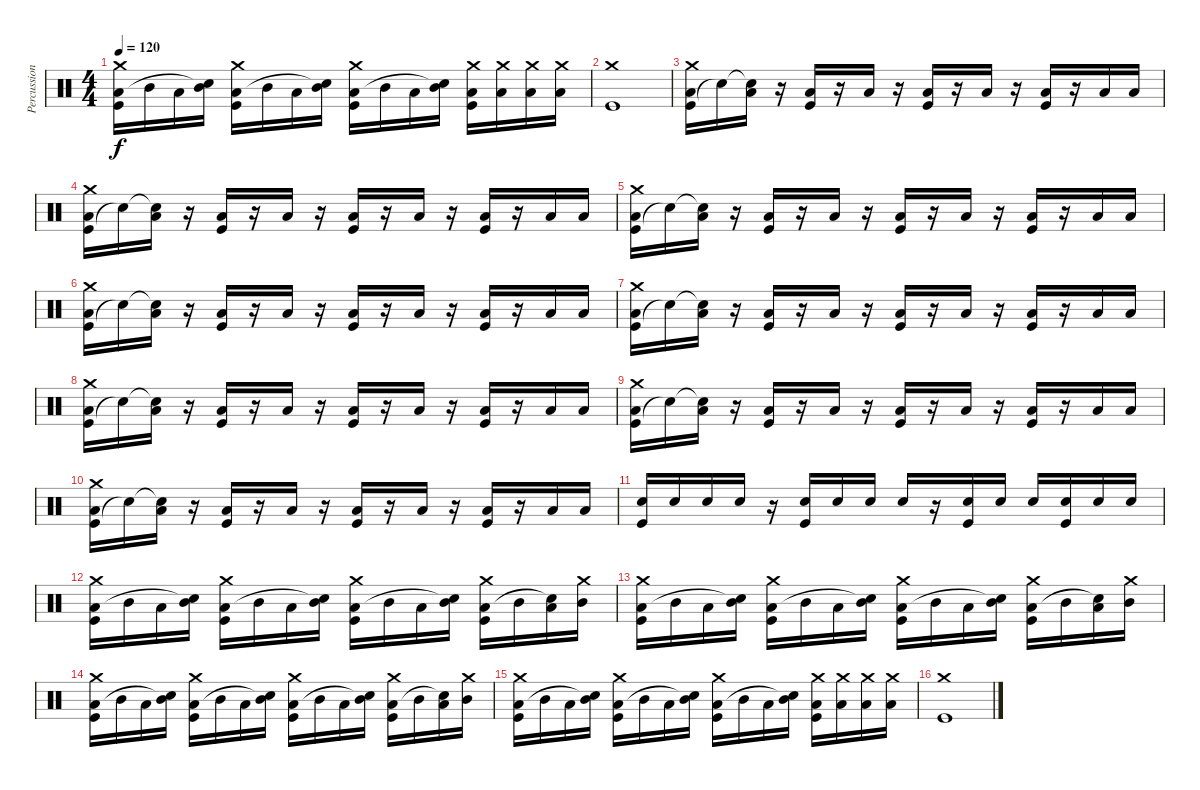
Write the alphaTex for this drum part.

\track ("Percussion" "Percussion") {instrument percussion}
\staff {score}
\articulation defaults
\ts (4 4)
\tempo 120
\clef neutral
\ks c
("Kick (hit)" "Low Tom (hit)" "Crash medium (hit)").16{dy f} "Mid Tom (hit)".16 "Low Tom (hit)".16 ("Mid Tom (hit)" "Snare (hit)"{t}).16 ("Kick (hit)" "Low Tom (hit)" "Crash medium (hit)").16 "Mid Tom (hit)".16 "Low Tom (hit)".16 ("Mid Tom (hit)" "Snare (hit)"{t}).16 ("Kick (hit)" "Low Tom (hit)" "Crash medium (hit)").16 "Mid Tom (hit)".16 "Low Tom (hit)".16 ("Mid Tom (hit)" "Snare (hit)"{t}).16 ("Kick (hit)" "Low Tom (hit)" "Crash medium (hit)").16 ("Low Tom (hit)" "Crash medium (hit)").16 ("Low Tom (hit)" "Crash medium (hit)").16 ("Low Tom (hit)" "Crash medium (hit)").16 |
("Crash medium (hit)" "Kick (hit)").1 |
("Kick (hit)" "Crash medium (hit)" "Low Tom (hit)").16 "Snare (hit)"{t}.16 ("Snare (hit)"{t} "Low Tom (hit)").16 r.16 ("Kick (hit)" "Low Tom (hit)").16 r.16 "Low Tom (hit)".16 r.16 ("Kick (hit)" "Low Tom (hit)").16 r.16 "Low Tom (hit)".16 r.16 ("Kick (hit)" "Low Tom (hit)").16 r.16 "Low Tom (hit)".16 "Low Tom (hit)".16 |
("Kick (hit)" "Crash medium (hit)" "Low Tom (hit)").16 "Snare (hit)"{t}.16 ("Snare (hit)"{t} "Low Tom (hit)").16 r.16 ("Kick (hit)" "Low Tom (hit)").16 r.16 "Low Tom (hit)".16 r.16 ("Kick (hit)" "Low Tom (hit)").16 r.16 "Low Tom (hit)".16 r.16 ("Kick (hit)" "Low Tom (hit)").16 r.16 "Low Tom (hit)".16 "Low Tom (hit)".16 |
("Kick (hit)" "Crash medium (hit)" "Low Tom (hit)").16 "Snare (hit)"{t}.16 ("Snare (hit)"{t} "Low Tom (hit)").16 r.16 ("Kick (hit)" "Low Tom (hit)").16 r.16 "Low Tom (hit)".16 r.16 ("Kick (hit)" "Low Tom (hit)").16 r.16 "Low Tom (hit)".16 r.16 ("Kick (hit)" "Low Tom (hit)").16 r.16 "Low Tom (hit)".16 "Low Tom (hit)".16 |
("Kick (hit)" "Crash medium (hit)" "Low Tom (hit)").16 "Snare (hit)"{t}.16 ("Snare (hit)"{t} "Low Tom (hit)").16 r.16 ("Kick (hit)" "Low Tom (hit)").16 r.16 "Low Tom (hit)".16 r.16 ("Kick (hit)" "Low Tom (hit)").16 r.16 "Low Tom (hit)".16 r.16 ("Kick (hit)" "Low Tom (hit)").16 r.16 "Low Tom (hit)".16 "Low Tom (hit)".16 |
("Kick (hit)" "Crash medium (hit)" "Low Tom (hit)").16 "Snare (hit)"{t}.16 ("Snare (hit)"{t} "Low Tom (hit)").16 r.16 ("Kick (hit)" "Low Tom (hit)").16 r.16 "Low Tom (hit)".16 r.16 ("Kick (hit)" "Low Tom (hit)").16 r.16 "Low Tom (hit)".16 r.16 ("Kick (hit)" "Low Tom (hit)").16 r.16 "Low Tom (hit)".16 "Low Tom (hit)".16 |
("Kick (hit)" "Crash medium (hit)" "Low Tom (hit)").16 "Snare (hit)"{t}.16 ("Snare (hit)"{t} "Low Tom (hit)").16 r.16 ("Kick (hit)" "Low Tom (hit)").16 r.16 "Low Tom (hit)".16 r.16 ("Kick (hit)" "Low Tom (hit)").16 r.16 "Low Tom (hit)".16 r.16 ("Kick (hit)" "Low Tom (hit)").16 r.16 "Low Tom (hit)".16 "Low Tom (hit)".16 |
("Kick (hit)" "Crash medium (hit)" "Low Tom (hit)").16 "Snare (hit)"{t}.16 ("Snare (hit)"{t} "Low Tom (hit)").16 r.16 ("Kick (hit)" "Low Tom (hit)").16 r.16 "Low Tom (hit)".16 r.16 ("Kick (hit)" "Low Tom (hit)").16 r.16 "Low Tom (hit)".16 r.16 ("Kick (hit)" "Low Tom (hit)").16 r.16 "Low Tom (hit)".16 "Low Tom (hit)".16 |
("Kick (hit)" "Crash medium (hit)" "Low Tom (hit)").16 "Snare (hit)"{t}.16 ("Snare (hit)"{t} "Low Tom (hit)").16 r.16 ("Kick (hit)" "Low Tom (hit)").16 r.16 "Low Tom (hit)".16 r.16 ("Kick (hit)" "Low Tom (hit)").16 r.16 "Low Tom (hit)".16 r.16 ("Kick (hit)" "Low Tom (hit)").16 r.16 "Low Tom (hit)".16 "Low Tom (hit)".16 |
("Kick (hit)" "Snare (hit) 2").16 "Snare (hit) 2".16 "Snare (hit) 2".16 "Snare (hit) 2".16 r.16 ("Kick (hit)" "Snare (hit) 2").16 "Snare (hit) 2".16 "Snare (hit) 2".16 "Snare (hit) 2".16 r.16 ("Kick (hit)" "Snare (hit) 2").16 "Snare (hit) 2".16 "Snare (hit) 2".16 ("Kick (hit)" "Snare (hit) 2").16 "Snare (hit) 2".16 "Snare (hit) 2".16 |
("Kick (hit)" "Low Tom (hit)" "Crash medium (hit)").16 "Mid Tom (hit)".16 "Low Tom (hit)".16 ("Mid Tom (hit)" "Snare (hit)"{t}).16 ("Kick (hit)" "Low Tom (hit)" "Crash medium (hit)").16 "Mid Tom (hit)".16 "Low Tom (hit)".16 ("Mid Tom (hit)" "Snare (hit)"{t}).16 ("Kick (hit)" "Low Tom (hit)" "Crash medium (hit)").16 "Mid Tom (hit)".16 "Low Tom (hit)".16 ("Mid Tom (hit)" "Snare (hit)"{t}).16 ("Kick (hit)" "Low Tom (hit)" "Crash medium (hit)").16 "Mid Tom (hit)".16 ("Low Tom (hit)" "Snare (hit)"{t}).16 ("Mid Tom (hit)" "Crash medium (hit)").16 |
("Kick (hit)" "Low Tom (hit)" "Crash medium (hit)").16 "Mid Tom (hit)".16 "Low Tom (hit)".16 ("Mid Tom (hit)" "Snare (hit)"{t}).16 ("Kick (hit)" "Low Tom (hit)" "Crash medium (hit)").16 "Mid Tom (hit)".16 "Low Tom (hit)".16 ("Mid Tom (hit)" "Snare (hit)"{t}).16 ("Kick (hit)" "Low Tom (hit)" "Crash medium (hit)").16 "Mid Tom (hit)".16 "Low Tom (hit)".16 ("Mid Tom (hit)" "Snare (hit)"{t}).16 ("Kick (hit)" "Low Tom (hit)" "Crash medium (hit)").16 "Mid Tom (hit)".16 ("Low Tom (hit)" "Snare (hit)"{t}).16 ("Mid Tom (hit)" "Crash medium (hit)").16 |
("Kick (hit)" "Low Tom (hit)" "Crash medium (hit)").16 "Mid Tom (hit)".16 "Low Tom (hit)".16 ("Mid Tom (hit)" "Snare (hit)"{t}).16 ("Kick (hit)" "Low Tom (hit)" "Crash medium (hit)").16 "Mid Tom (hit)".16 "Low Tom (hit)".16 ("Mid Tom (hit)" "Snare (hit)"{t}).16 ("Kick (hit)" "Low Tom (hit)" "Crash medium (hit)").16 "Mid Tom (hit)".16 "Low Tom (hit)".16 ("Mid Tom (hit)" "Snare (hit)"{t}).16 ("Kick (hit)" "Low Tom (hit)" "Crash medium (hit)").16 "Mid Tom (hit)".16 ("Low Tom (hit)" "Snare (hit)"{t}).16 ("Mid Tom (hit)" "Crash medium (hit)").16 |
("Kick (hit)" "Low Tom (hit)" "Crash medium (hit)").16 "Mid Tom (hit)".16 "Low Tom (hit)".16 ("Mid Tom (hit)" "Snare (hit)"{t}).16 ("Kick (hit)" "Low Tom (hit)" "Crash medium (hit)").16 "Mid Tom (hit)".16 "Low Tom (hit)".16 ("Mid Tom (hit)" "Snare (hit)"{t}).16 ("Kick (hit)" "Low Tom (hit)" "Crash medium (hit)").16 "Mid Tom (hit)".16 "Low Tom (hit)".16 ("Mid Tom (hit)" "Snare (hit)"{t}).16 ("Kick (hit)" "Low Tom (hit)" "Crash medium (hit)").16 ("Low Tom (hit)" "Crash medium (hit)").16 ("Low Tom (hit)" "Crash medium (hit)").16 ("Low Tom (hit)" "Crash medium (hit)").16 |
("Crash medium (hit)" "Kick (hit)").1
